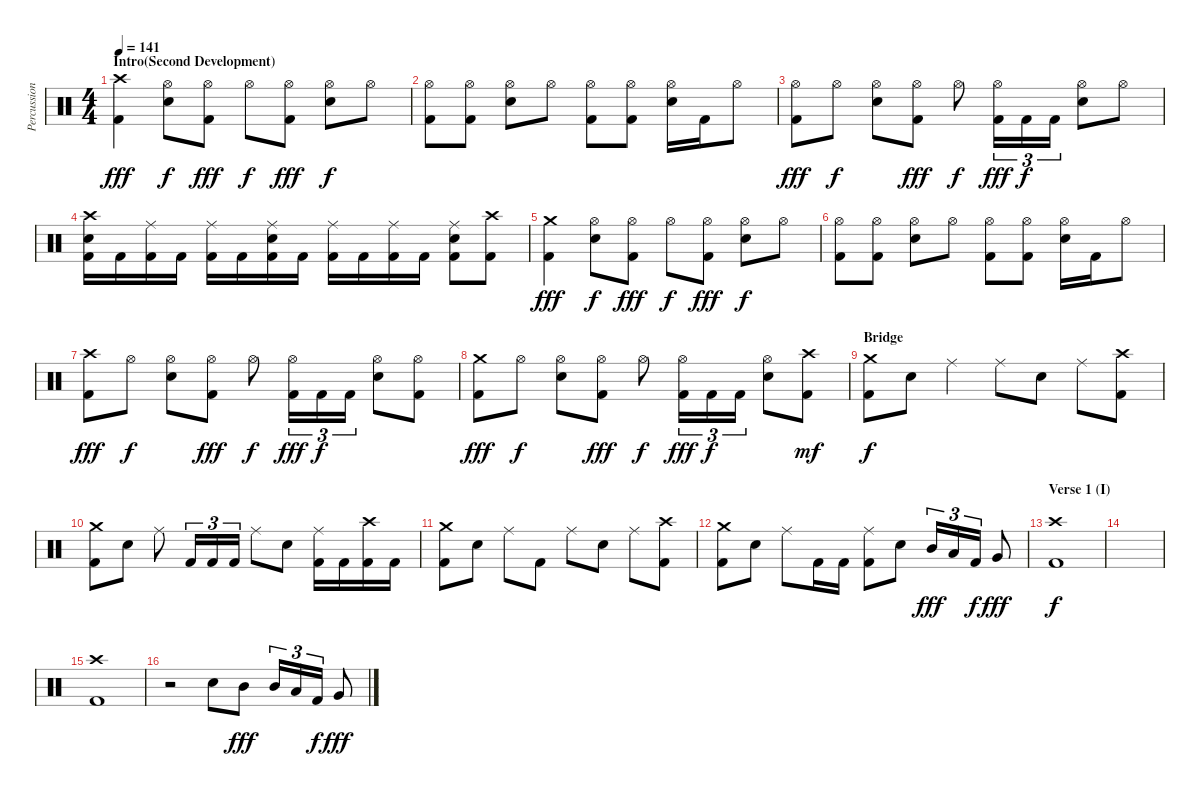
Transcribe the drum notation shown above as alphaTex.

\track ("Percussion" "Percussion") {instrument percussion}
\staff {score}
\articulation defaults
\ts (4 4)
\section ("" "Intro(Second Development)")
\tempo 141
\clef neutral
\ks c
("Crash high (hit)" "Kick (hit) 2").4{dy fff} ("Hi-Hat (open)" "Snare (hit) 2").8{dy f} ("Hi-Hat (open)" "Kick (hit) 2").8{dy fff} "Hi-Hat (open)".8{dy f} ("Hi-Hat (open)" "Kick (hit) 2").8{dy fff} ("Hi-Hat (open)" "Snare (hit) 2").8{dy f} "Hi-Hat (open)".8 |
("Hi-Hat (open)" "Kick (hit) 2").8 ("Hi-Hat (open)" "Kick (hit) 2").8 ("Hi-Hat (open)" "Snare (hit) 2").8 "Hi-Hat (open)".8 ("Hi-Hat (open)" "Kick (hit) 2").8 ("Hi-Hat (open)" "Kick (hit) 2").8 ("Hi-Hat (open)" "Snare (hit) 2").16 "Kick (hit) 2".16 "Hi-Hat (open)".8 |
("Hi-Hat (open)" "Kick (hit) 2").8{dy fff} "Hi-Hat (open)".8{dy f} ("Hi-Hat (open)" "Snare (hit) 2").8 ("Hi-Hat (open)" "Kick (hit) 2").8{dy fff} "Hi-Hat (open)".8{dy f} ("Hi-Hat (open)" "Kick (hit) 2").16{tu (3 2) dy fff} "Kick (hit) 2".16{tu (3 2) dy f} "Kick (hit) 2".16{tu (3 2)} ("Hi-Hat (open)" "Snare (hit) 2").8 "Hi-Hat (open)".8 |
("Crash high (hit)" "Snare (hit) 2" "Kick (hit) 2").16 "Kick (hit) 2".16 ("Ride (middle)" "Kick (hit) 2").16 "Kick (hit) 2".16 ("Ride (middle)" "Kick (hit) 2").16 "Kick (hit) 2".16 ("Ride (middle)" "Snare (hit) 2" "Kick (hit) 2").16 "Kick (hit) 2".16 ("Ride (middle)" "Kick (hit) 2").16 "Kick (hit) 2".16 ("Ride (middle)" "Kick (hit) 2").16 "Kick (hit) 2".16 ("Ride (middle)" "Snare (hit) 2" "Kick (hit) 2").8 ("Crash high (hit)" "Kick (hit) 2").8 |
("Crash medium (hit)" "Kick (hit) 2").4{dy fff} ("Hi-Hat (open)" "Snare (hit) 2").8{dy f} ("Hi-Hat (open)" "Kick (hit) 2").8{dy fff} "Hi-Hat (open)".8{dy f} ("Hi-Hat (open)" "Kick (hit) 2").8{dy fff} ("Hi-Hat (open)" "Snare (hit) 2").8{dy f} "Hi-Hat (open)".8 |
("Hi-Hat (open)" "Kick (hit) 2").8 ("Hi-Hat (open)" "Kick (hit) 2").8 ("Hi-Hat (open)" "Snare (hit) 2").8 "Hi-Hat (open)".8 ("Hi-Hat (open)" "Kick (hit) 2").8 ("Hi-Hat (open)" "Kick (hit) 2").8 ("Hi-Hat (open)" "Snare (hit) 2").16 "Kick (hit) 2".16 "Hi-Hat (open)".8 |
("Crash high (hit)" "Kick (hit) 2").8{dy fff} "Hi-Hat (open)".8{dy f} ("Hi-Hat (open)" "Snare (hit) 2").8 ("Hi-Hat (open)" "Kick (hit) 2").8{dy fff} "Hi-Hat (open)".8{dy f} ("Hi-Hat (open)" "Kick (hit) 2").16{tu (3 2) dy fff} "Kick (hit) 2".16{tu (3 2) dy f} "Kick (hit) 2".16{tu (3 2)} ("Hi-Hat (open)" "Snare (hit) 2").8 ("Hi-Hat (open)" "Kick (hit) 2").8 |
("Crash medium (hit)" "Kick (hit) 2").8{dy fff} "Hi-Hat (open)".8{dy f} ("Hi-Hat (open)" "Snare (hit) 2").8 ("Hi-Hat (open)" "Kick (hit) 2").8{dy fff} "Hi-Hat (open)".8{dy f} ("Hi-Hat (open)" "Kick (hit) 2").16{tu (3 2) dy fff} "Kick (hit) 2".16{tu (3 2) dy f} "Kick (hit) 2".16{tu (3 2)} ("Hi-Hat (open)" "Snare (hit) 2").8 ("Crash high (hit)" "Kick (hit) 2").8{dy mf} |
\section ("" "Bridge")
("Crash medium (hit)" "Kick (hit) 2").8{dy f} "Snare (hit) 2".8 "Ride (middle)".4 "Ride (middle)".8 "Snare (hit) 2".8 "Ride (middle)".8 ("Crash high (hit)" "Kick (hit) 2").8 |
("Crash medium (hit)" "Kick (hit) 2").8 "Snare (hit) 2".8 "Ride (middle)".8 "Kick (hit) 2".16{tu (3 2)} "Kick (hit) 2".16{tu (3 2)} "Kick (hit) 2".16{tu (3 2)} "Ride (middle)".8 "Snare (hit) 2".8 ("Ride (middle)" "Kick (hit) 2").16 "Kick (hit) 2".16 ("Crash high (hit)" "Kick (hit) 2").16 "Kick (hit) 2".16 |
("Crash medium (hit)" "Kick (hit) 2").8 "Snare (hit) 2".8 "Ride (middle)".8 "Kick (hit) 2".8 "Ride (middle)".8 "Snare (hit) 2".8 "Ride (middle)".8 ("Crash high (hit)" "Kick (hit) 2").8 |
("Crash medium (hit)" "Kick (hit) 2").8 "Snare (hit) 2".8 "Ride (middle)".8 "Kick (hit) 2".16 "Kick (hit) 2".16 ("Ride (middle)" "Kick (hit) 2").8 "Snare (hit) 2".8 "Mid Tom (hit)".16{tu (3 2) dy fff} "Low Tom (hit)".16{tu (3 2)} "Kick (hit) 2".16{tu (3 2) dy f} "Very Low Tom (hit)".8{dy fff} |
\section ("" "Verse 1 (I)")
("Crash high (hit)" "Kick (hit) 2").1{dy f} |
|
("Crash high (hit)" "Kick (hit) 2").1 |
r.2 "Snare (hit) 2".8 "Mid Tom (hit)".8{dy fff} "Mid Tom (hit)".16{tu (3 2)} "Low Tom (hit)".16{tu (3 2)} "Kick (hit) 2".16{tu (3 2) dy f} "Very Low Tom (hit)".8{dy fff}
